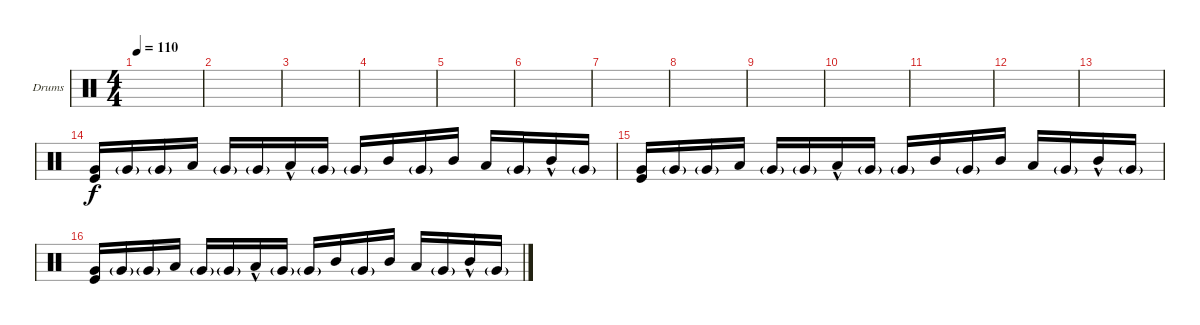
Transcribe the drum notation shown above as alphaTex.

\defaultSystemsLayout 4
\bracketExtendMode groupsimilarinstruments
\firstSystemTrackNameOrientation horizontal
\otherSystemsTrackNameOrientation horizontal
\track ("Drumkit" "Drums") {instrument percussion}
\staff {score}
\articulation defaults
\ts (4 4)
\tempo 110
\clef neutral
\scale
0.333333
\ks c
|
\scale
0.333333 |
\scale
0.333333 |
\scale
0.333333 |
\scale
0.333333 |
\scale
0.333333 |
\scale
0.333333 |
\scale
0.333333 |
\scale
0.333333 |
\scale
0.333333 |
\scale
0.333333 |
\scale
0.333333 |
\scale
0.333333 |
\scale
0.333333 ("Very Low Tom (hit)" "Kick (hit)").16 "Very Low Tom (hit)"{g}.16 "Very Low Tom (hit)"{g}.16 "Low Tom (hit)".16 "Very Low Tom (hit)"{g}.16 "Very Low Tom (hit)"{g}.16 "Low Tom (hit)"{hac}.16 "Very Low Tom (hit)"{g}.16 "Very Low Tom (hit)"{g}.16 "Mid Tom (hit)".16 "Very Low Tom (hit)"{g}.16 "Mid Tom (hit)".16 "Low Tom (hit)".16 "Very Low Tom (hit)"{g}.16 "Mid Tom (hit)"{hac}.16 "Very Low Tom (hit)"{g}.16 |
("Very Low Tom (hit)" "Kick (hit)").16 "Very Low Tom (hit)"{g}.16 "Very Low Tom (hit)"{g}.16 "Low Tom (hit)".16 "Very Low Tom (hit)"{g}.16 "Very Low Tom (hit)"{g}.16 "Low Tom (hit)"{hac}.16 "Very Low Tom (hit)"{g}.16 "Very Low Tom (hit)"{g}.16 "Mid Tom (hit)".16 "Very Low Tom (hit)"{g}.16 "Mid Tom (hit)".16 "Low Tom (hit)".16 "Very Low Tom (hit)"{g}.16 "Mid Tom (hit)"{hac}.16 "Very Low Tom (hit)"{g}.16 |
("Very Low Tom (hit)" "Kick (hit)").16 "Very Low Tom (hit)"{g}.16 "Very Low Tom (hit)"{g}.16 "Low Tom (hit)".16 "Very Low Tom (hit)"{g}.16 "Very Low Tom (hit)"{g}.16 "Low Tom (hit)"{hac}.16 "Very Low Tom (hit)"{g}.16 "Very Low Tom (hit)"{g}.16 "Mid Tom (hit)".16 "Very Low Tom (hit)"{g}.16 "Mid Tom (hit)".16 "Low Tom (hit)".16 "Very Low Tom (hit)"{g}.16 "Mid Tom (hit)"{hac}.16 "Very Low Tom (hit)"{g}.16
